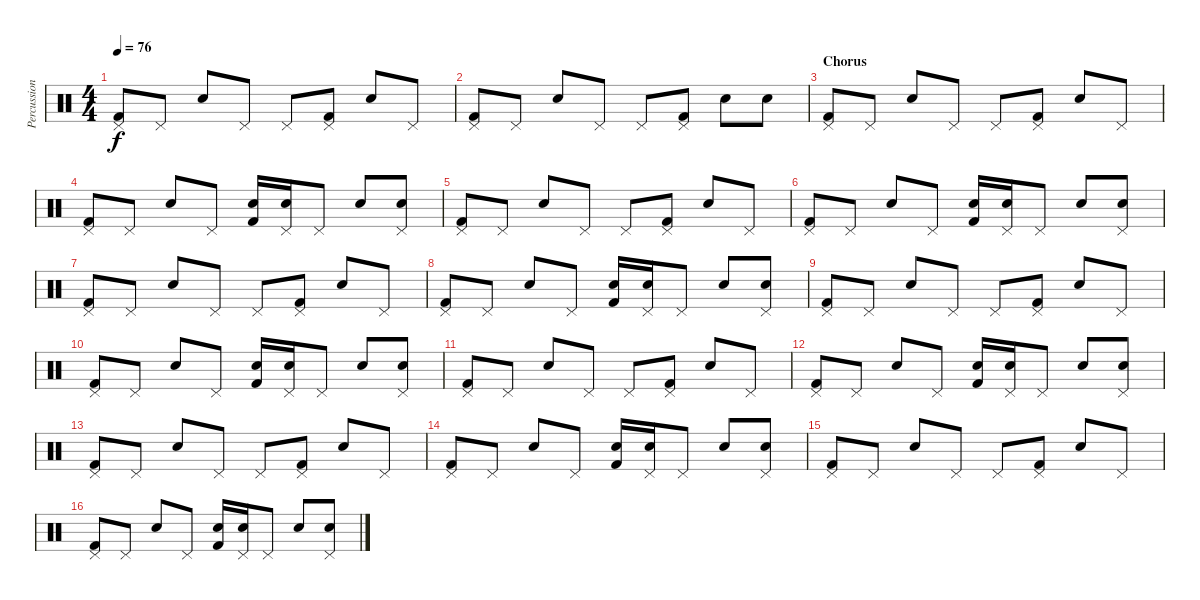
\track ("Percussions" "Percussion") {instrument percussion}
\staff {score}
\articulation defaults
\ts (4 4)
\tempo 76
\clef neutral
\ks c
("Pedal Hi-Hat (hit)" "Kick (hit) 2").8{dy f} "Pedal Hi-Hat (hit)".8 "Snare (hit) 2".8 "Pedal Hi-Hat (hit)".8 "Pedal Hi-Hat (hit)".8 ("Pedal Hi-Hat (hit)" "Kick (hit) 2").8 "Snare (hit) 2".8 "Pedal Hi-Hat (hit)".8 |
("Pedal Hi-Hat (hit)" "Kick (hit) 2").8 "Pedal Hi-Hat (hit)".8 "Snare (hit) 2".8 "Pedal Hi-Hat (hit)".8 "Pedal Hi-Hat (hit)".8 ("Pedal Hi-Hat (hit)" "Kick (hit) 2").8 "Snare (hit) 2".8 "Snare (hit) 2".8 |
\section ("" "Chorus")
("Pedal Hi-Hat (hit)" "Kick (hit) 2").8 "Pedal Hi-Hat (hit)".8 "Snare (hit) 2".8 "Pedal Hi-Hat (hit)".8 "Pedal Hi-Hat (hit)".8 ("Pedal Hi-Hat (hit)" "Kick (hit) 2").8 "Snare (hit) 2".8 "Pedal Hi-Hat (hit)".8 |
("Pedal Hi-Hat (hit)" "Kick (hit) 2").8 "Pedal Hi-Hat (hit)".8 "Snare (hit) 2".8 "Pedal Hi-Hat (hit)".8 ("Snare (hit) 2" "Kick (hit) 2").16 ("Snare (hit) 2" "Pedal Hi-Hat (hit)").16 "Pedal Hi-Hat (hit)".8 "Snare (hit) 2".8 ("Snare (hit) 2" "Pedal Hi-Hat (hit)").8 |
("Pedal Hi-Hat (hit)" "Kick (hit) 2").8 "Pedal Hi-Hat (hit)".8 "Snare (hit) 2".8 "Pedal Hi-Hat (hit)".8 "Pedal Hi-Hat (hit)".8 ("Pedal Hi-Hat (hit)" "Kick (hit) 2").8 "Snare (hit) 2".8 "Pedal Hi-Hat (hit)".8 |
("Pedal Hi-Hat (hit)" "Kick (hit) 2").8 "Pedal Hi-Hat (hit)".8 "Snare (hit) 2".8 "Pedal Hi-Hat (hit)".8 ("Snare (hit) 2" "Kick (hit) 2").16 ("Snare (hit) 2" "Pedal Hi-Hat (hit)").16 "Pedal Hi-Hat (hit)".8 "Snare (hit) 2".8 ("Snare (hit) 2" "Pedal Hi-Hat (hit)").8 |
("Pedal Hi-Hat (hit)" "Kick (hit) 2").8 "Pedal Hi-Hat (hit)".8 "Snare (hit) 2".8 "Pedal Hi-Hat (hit)".8 "Pedal Hi-Hat (hit)".8 ("Pedal Hi-Hat (hit)" "Kick (hit) 2").8 "Snare (hit) 2".8 "Pedal Hi-Hat (hit)".8 |
("Pedal Hi-Hat (hit)" "Kick (hit) 2").8 "Pedal Hi-Hat (hit)".8 "Snare (hit) 2".8 "Pedal Hi-Hat (hit)".8 ("Snare (hit) 2" "Kick (hit) 2").16 ("Snare (hit) 2" "Pedal Hi-Hat (hit)").16 "Pedal Hi-Hat (hit)".8 "Snare (hit) 2".8 ("Snare (hit) 2" "Pedal Hi-Hat (hit)").8 |
("Pedal Hi-Hat (hit)" "Kick (hit) 2").8 "Pedal Hi-Hat (hit)".8 "Snare (hit) 2".8 "Pedal Hi-Hat (hit)".8 "Pedal Hi-Hat (hit)".8 ("Pedal Hi-Hat (hit)" "Kick (hit) 2").8 "Snare (hit) 2".8 "Pedal Hi-Hat (hit)".8 |
("Pedal Hi-Hat (hit)" "Kick (hit) 2").8 "Pedal Hi-Hat (hit)".8 "Snare (hit) 2".8 "Pedal Hi-Hat (hit)".8 ("Snare (hit) 2" "Kick (hit) 2").16 ("Snare (hit) 2" "Pedal Hi-Hat (hit)").16 "Pedal Hi-Hat (hit)".8 "Snare (hit) 2".8 ("Snare (hit) 2" "Pedal Hi-Hat (hit)").8 |
("Pedal Hi-Hat (hit)" "Kick (hit) 2").8 "Pedal Hi-Hat (hit)".8 "Snare (hit) 2".8 "Pedal Hi-Hat (hit)".8 "Pedal Hi-Hat (hit)".8 ("Pedal Hi-Hat (hit)" "Kick (hit) 2").8 "Snare (hit) 2".8 "Pedal Hi-Hat (hit)".8 |
("Pedal Hi-Hat (hit)" "Kick (hit) 2").8 "Pedal Hi-Hat (hit)".8 "Snare (hit) 2".8 "Pedal Hi-Hat (hit)".8 ("Snare (hit) 2" "Kick (hit) 2").16 ("Snare (hit) 2" "Pedal Hi-Hat (hit)").16 "Pedal Hi-Hat (hit)".8 "Snare (hit) 2".8 ("Snare (hit) 2" "Pedal Hi-Hat (hit)").8 |
("Pedal Hi-Hat (hit)" "Kick (hit) 2").8 "Pedal Hi-Hat (hit)".8 "Snare (hit) 2".8 "Pedal Hi-Hat (hit)".8 "Pedal Hi-Hat (hit)".8 ("Pedal Hi-Hat (hit)" "Kick (hit) 2").8 "Snare (hit) 2".8 "Pedal Hi-Hat (hit)".8 |
("Pedal Hi-Hat (hit)" "Kick (hit) 2").8 "Pedal Hi-Hat (hit)".8 "Snare (hit) 2".8 "Pedal Hi-Hat (hit)".8 ("Snare (hit) 2" "Kick (hit) 2").16 ("Snare (hit) 2" "Pedal Hi-Hat (hit)").16 "Pedal Hi-Hat (hit)".8 "Snare (hit) 2".8 ("Snare (hit) 2" "Pedal Hi-Hat (hit)").8 |
("Pedal Hi-Hat (hit)" "Kick (hit) 2").8 "Pedal Hi-Hat (hit)".8 "Snare (hit) 2".8 "Pedal Hi-Hat (hit)".8 "Pedal Hi-Hat (hit)".8 ("Pedal Hi-Hat (hit)" "Kick (hit) 2").8 "Snare (hit) 2".8 "Pedal Hi-Hat (hit)".8 |
("Pedal Hi-Hat (hit)" "Kick (hit) 2").8 "Pedal Hi-Hat (hit)".8 "Snare (hit) 2".8 "Pedal Hi-Hat (hit)".8 ("Snare (hit) 2" "Kick (hit) 2").16 ("Snare (hit) 2" "Pedal Hi-Hat (hit)").16 "Pedal Hi-Hat (hit)".8 "Snare (hit) 2".8 ("Snare (hit) 2" "Pedal Hi-Hat (hit)").8
